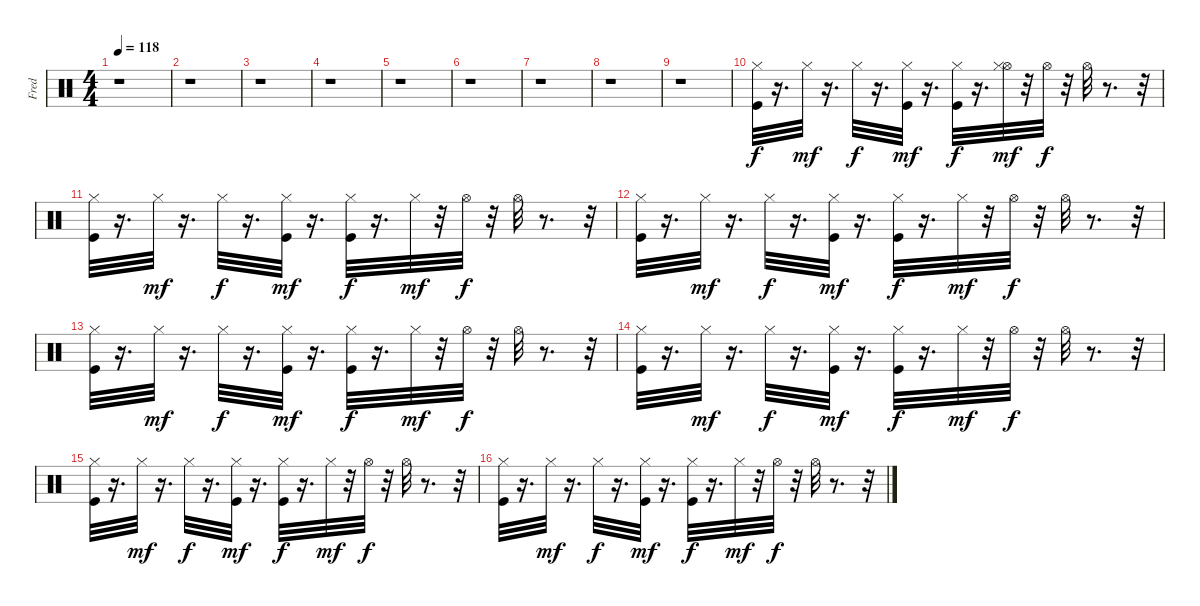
\track ("Fred" "Fred") {instrument percussion}
\staff {score}
\articulation defaults
\ts (4 4)
\tempo 118
\clef neutral
\ks c
r.1{dy f} |
r.1 |
r.1 |
r.1 |
r.1 |
r.1 |
r.1 |
r.1 |
r.1 |
("Hi-Hat (closed)" "Kick (hit)").32 r.16{d} "Hi-Hat (closed)".32{dy mf} r.16{d} "Hi-Hat (closed)".32{dy f} r.16{d} ("Hi-Hat (closed)" "Kick (hit)").32{dy mf} r.16{d} ("Hi-Hat (closed)" "Kick (hit)").32{dy f} r.16{d} ("Hi-Hat (open)" "Hi-Hat (closed)").32{dy mf} r.32 "Hi-Hat (open)".32{dy f} r.32 "Hi-Hat (open)".32 r.8{d} r.32 |
("Hi-Hat (closed)" "Kick (hit)").32 r.16{d} "Hi-Hat (closed)".32{dy mf} r.16{d} "Hi-Hat (closed)".32{dy f} r.16{d} ("Hi-Hat (closed)" "Kick (hit)").32{dy mf} r.16{d} ("Hi-Hat (closed)" "Kick (hit)").32{dy f} r.16{d} "Hi-Hat (closed)".32{dy mf} r.32 "Hi-Hat (open)".32{dy f} r.32 "Hi-Hat (open)".32 r.8{d} r.32 |
("Hi-Hat (closed)" "Kick (hit)").32 r.16{d} "Hi-Hat (closed)".32{dy mf} r.16{d} "Hi-Hat (closed)".32{dy f} r.16{d} ("Hi-Hat (closed)" "Kick (hit)").32{dy mf} r.16{d} ("Hi-Hat (closed)" "Kick (hit)").32{dy f} r.16{d} "Hi-Hat (closed)".32{dy mf} r.32 "Hi-Hat (open)".32{dy f} r.32 "Hi-Hat (open)".32 r.8{d} r.32 |
("Hi-Hat (closed)" "Kick (hit)").32 r.16{d} "Hi-Hat (closed)".32{dy mf} r.16{d} "Hi-Hat (closed)".32{dy f} r.16{d} ("Hi-Hat (closed)" "Kick (hit)").32{dy mf} r.16{d} ("Hi-Hat (closed)" "Kick (hit)").32{dy f} r.16{d} "Hi-Hat (closed)".32{dy mf} r.32 "Hi-Hat (open)".32{dy f} r.32 "Hi-Hat (open)".32 r.8{d} r.32 |
("Hi-Hat (closed)" "Kick (hit)").32 r.16{d} "Hi-Hat (closed)".32{dy mf} r.16{d} "Hi-Hat (closed)".32{dy f} r.16{d} ("Hi-Hat (closed)" "Kick (hit)").32{dy mf} r.16{d} ("Hi-Hat (closed)" "Kick (hit)").32{dy f} r.16{d} "Hi-Hat (closed)".32{dy mf} r.32 "Hi-Hat (open)".32{dy f} r.32 "Hi-Hat (open)".32 r.8{d} r.32 |
("Hi-Hat (closed)" "Kick (hit)").32 r.16{d} "Hi-Hat (closed)".32{dy mf} r.16{d} "Hi-Hat (closed)".32{dy f} r.16{d} ("Hi-Hat (closed)" "Kick (hit)").32{dy mf} r.16{d} ("Hi-Hat (closed)" "Kick (hit)").32{dy f} r.16{d} "Hi-Hat (closed)".32{dy mf} r.32 "Hi-Hat (open)".32{dy f} r.32 "Hi-Hat (open)".32 r.8{d} r.32 |
("Hi-Hat (closed)" "Kick (hit)").32 r.16{d} "Hi-Hat (closed)".32{dy mf} r.16{d} "Hi-Hat (closed)".32{dy f} r.16{d} ("Hi-Hat (closed)" "Kick (hit)").32{dy mf} r.16{d} ("Hi-Hat (closed)" "Kick (hit)").32{dy f} r.16{d} "Hi-Hat (closed)".32{dy mf} r.32 "Hi-Hat (open)".32{dy f} r.32 "Hi-Hat (open)".32 r.8{d} r.32
